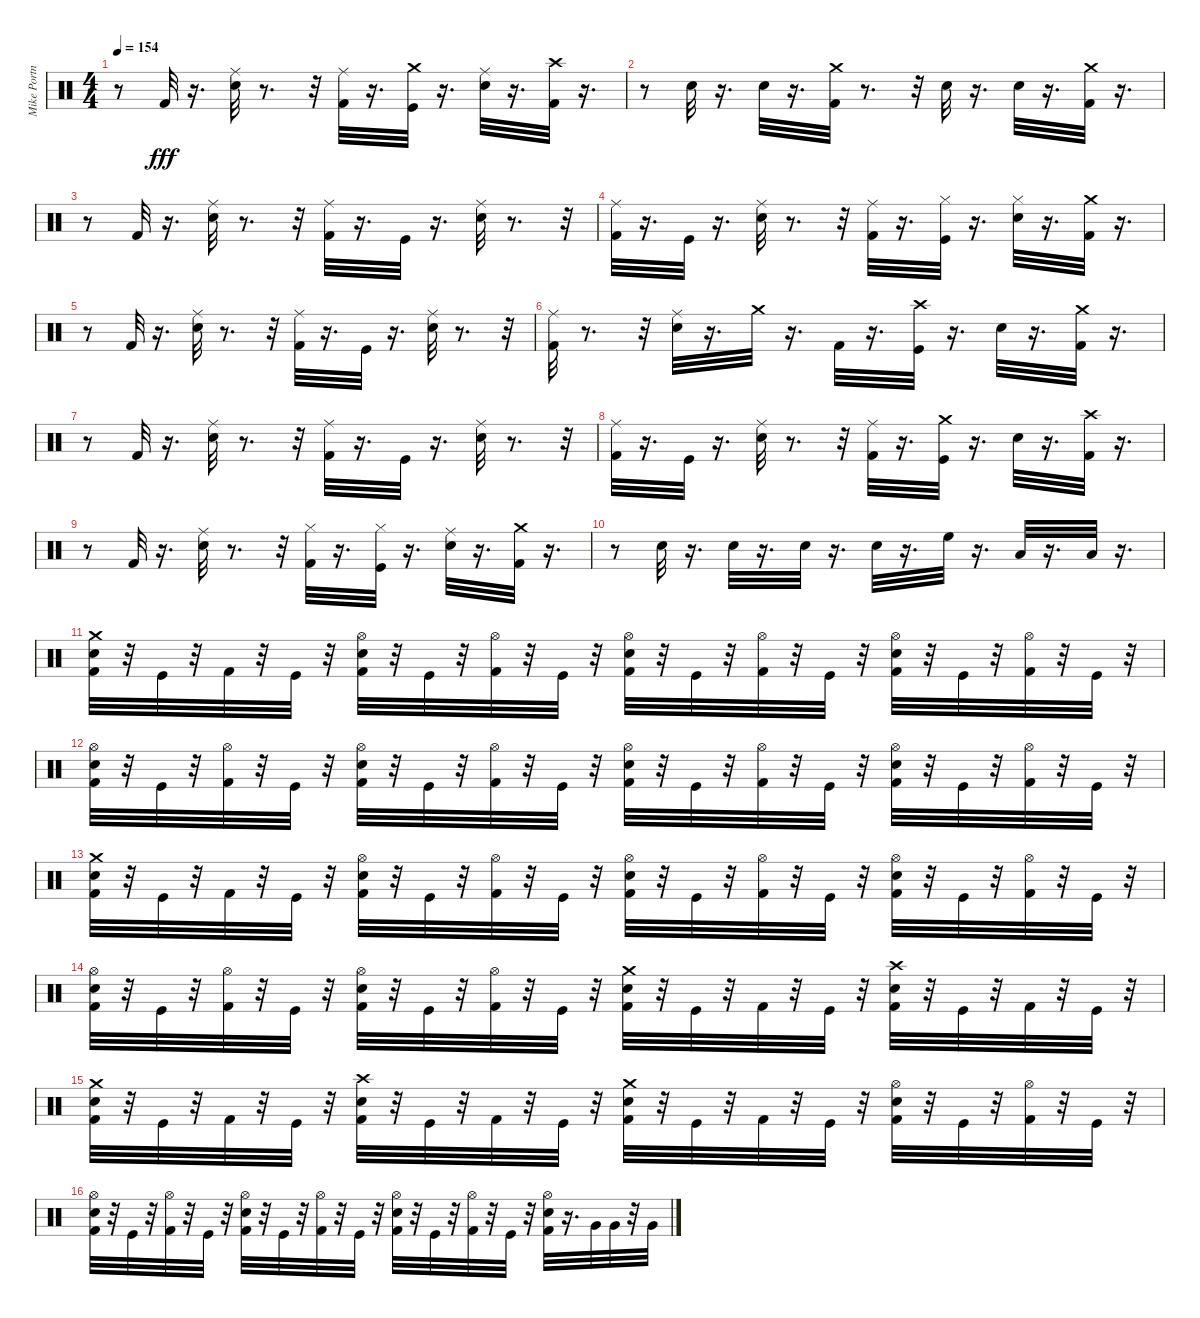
\track ("Mike Portnoy" "Mike Portn") {instrument percussion}
\staff {score}
\articulation defaults
\ts (4 4)
\tempo 154
\clef neutral
\ks c
r.8{dy fff} "Kick (hit) 2".32 r.16{d} ("Snare (hit) 2" "Ride (middle)").32 r.8{d} r.32 ("Kick (hit) 2" "Ride (middle)").32 r.16{d} ("Kick (hit)" "Crash medium (hit)").32 r.16{d} ("Snare (hit) 2" "Ride (middle)").32 r.16{d} ("Kick (hit) 2" "Crash high (hit)").32 r.16{d} |
r.8 "Snare (hit) 2".32 r.16{d} "Snare (hit) 2".32 r.16{d} ("Kick (hit) 2" "Crash medium (hit)").32 r.8{d} r.32 "Snare (hit) 2".32 r.16{d} "Snare (hit) 2".32 r.16{d} ("Kick (hit) 2" "Crash medium (hit)").32 r.16{d} |
r.8 "Kick (hit) 2".32 r.16{d} ("Snare (hit) 2" "Ride (middle)").32 r.8{d} r.32 ("Kick (hit) 2" "Ride (middle)").32 r.16{d} "Kick (hit)".32 r.16{d} ("Snare (hit) 2" "Ride (middle)").32 r.8{d} r.32 |
("Kick (hit) 2" "Ride (middle)").32 r.16{d} "Kick (hit)".32 r.16{d} ("Snare (hit) 2" "Ride (middle)").32 r.8{d} r.32 ("Kick (hit) 2" "Ride (middle)").32 r.16{d} ("Kick (hit)" "Hi-Hat (closed)").32 r.16{d} ("Snare (hit) 2" "Hi-Hat (closed)").32 r.16{d} ("Kick (hit) 2" "Crash medium (hit)").32 r.16{d} |
r.8 "Kick (hit) 2".32 r.16{d} ("Snare (hit) 2" "Ride (middle)").32 r.8{d} r.32 ("Kick (hit) 2" "Ride (middle)").32 r.16{d} "Kick (hit)".32 r.16{d} ("Snare (hit) 2" "Ride (middle)").32 r.8{d} r.32 |
("Kick (hit) 2" "Ride (middle)").32 r.8{d} r.32 ("Snare (hit) 2" "Ride (middle)").32 r.16{d} "Crash medium (hit)".32 r.16{d} "Kick (hit) 2".32 r.16{d} ("Kick (hit)" "Crash high (hit)").32 r.16{d} "Snare (hit) 2".32 r.16{d} ("Kick (hit) 2" "Crash medium (hit)").32 r.16{d} |
r.8 "Kick (hit) 2".32 r.16{d} ("Snare (hit) 2" "Ride (middle)").32 r.8{d} r.32 ("Kick (hit) 2" "Ride (middle)").32 r.16{d} "Kick (hit)".32 r.16{d} ("Snare (hit) 2" "Ride (middle)").32 r.8{d} r.32 |
("Kick (hit) 2" "Ride (middle)").32 r.16{d} "Kick (hit)".32 r.16{d} ("Snare (hit) 2" "Ride (middle)").32 r.8{d} r.32 ("Kick (hit) 2" "Ride (middle)").32 r.16{d} ("Kick (hit)" "Crash medium (hit)").32 r.16{d} "Snare (hit) 2".32 r.16{d} ("Kick (hit) 2" "Crash high (hit)").32 r.16{d} |
r.8 "Kick (hit) 2".32 r.16{d} ("Snare (hit) 2" "Ride (middle)").32 r.8{d} r.32 ("Kick (hit) 2" "Hi-Hat (closed)").32 r.16{d} ("Kick (hit)" "Hi-Hat (closed)").32 r.16{d} ("Snare (hit) 2" "Ride (middle)").32 r.16{d} ("Kick (hit) 2" "Crash medium (hit)").32 r.16{d} |
r.8 "Snare (hit) 2".32 r.16{d} "Snare (hit) 2".32 r.16{d} "Snare (hit) 2".32 r.16{d} "Snare (hit) 2".32 r.16{d} "High Floor Tom (hit)".32 r.16{d} "Low Tom (hit)".32 r.16{d} "Low Floor Tom (hit)".32 r.16{d} |
("Crash medium (hit)" "Snare (hit) 2" "Kick (hit) 2").32 r.32 "Kick (hit)".32 r.32 "Kick (hit) 2".32 r.32 "Kick (hit)".32 r.32 ("Hi-Hat (open)" "Snare (hit) 2" "Kick (hit) 2").32 r.32 "Kick (hit)".32 r.32 ("Hi-Hat (open)" "Kick (hit) 2").32 r.32 "Kick (hit)".32 r.32 ("Hi-Hat (open)" "Snare (hit) 2" "Kick (hit) 2").32 r.32 "Kick (hit)".32 r.32 ("Hi-Hat (open)" "Kick (hit) 2").32 r.32 "Kick (hit)".32 r.32 ("Hi-Hat (open)" "Snare (hit) 2" "Kick (hit) 2").32 r.32 "Kick (hit)".32 r.32 ("Hi-Hat (open)" "Kick (hit) 2").32 r.32 "Kick (hit)".32 r.32 |
("Hi-Hat (open)" "Snare (hit) 2" "Kick (hit) 2").32 r.32 "Kick (hit)".32 r.32 ("Hi-Hat (open)" "Kick (hit) 2").32 r.32 "Kick (hit)".32 r.32 ("Hi-Hat (open)" "Snare (hit) 2" "Kick (hit) 2").32 r.32 "Kick (hit)".32 r.32 ("Hi-Hat (open)" "Kick (hit) 2").32 r.32 "Kick (hit)".32 r.32 ("Hi-Hat (open)" "Snare (hit) 2" "Kick (hit) 2").32 r.32 "Kick (hit)".32 r.32 ("Hi-Hat (open)" "Kick (hit) 2").32 r.32 "Kick (hit)".32 r.32 ("Hi-Hat (open)" "Snare (hit) 2" "Kick (hit) 2").32 r.32 "Kick (hit)".32 r.32 ("Hi-Hat (open)" "Kick (hit) 2").32 r.32 "Kick (hit)".32 r.32 |
("Crash medium (hit)" "Snare (hit) 2" "Kick (hit) 2").32 r.32 "Kick (hit)".32 r.32 "Kick (hit) 2".32 r.32 "Kick (hit)".32 r.32 ("Hi-Hat (open)" "Snare (hit) 2" "Kick (hit) 2").32 r.32 "Kick (hit)".32 r.32 ("Hi-Hat (open)" "Kick (hit) 2").32 r.32 "Kick (hit)".32 r.32 ("Hi-Hat (open)" "Snare (hit) 2" "Kick (hit) 2").32 r.32 "Kick (hit)".32 r.32 ("Hi-Hat (open)" "Kick (hit) 2").32 r.32 "Kick (hit)".32 r.32 ("Hi-Hat (open)" "Snare (hit) 2" "Kick (hit) 2").32 r.32 "Kick (hit)".32 r.32 ("Hi-Hat (open)" "Kick (hit) 2").32 r.32 "Kick (hit)".32 r.32 |
("Hi-Hat (open)" "Snare (hit) 2" "Kick (hit) 2").32 r.32 "Kick (hit)".32 r.32 ("Hi-Hat (open)" "Kick (hit) 2").32 r.32 "Kick (hit)".32 r.32 ("Hi-Hat (open)" "Snare (hit) 2" "Kick (hit) 2").32 r.32 "Kick (hit)".32 r.32 ("Hi-Hat (open)" "Kick (hit) 2").32 r.32 "Kick (hit)".32 r.32 ("Crash medium (hit)" "Snare (hit) 2" "Kick (hit) 2").32 r.32 "Kick (hit)".32 r.32 "Kick (hit) 2".32 r.32 "Kick (hit)".32 r.32 ("Crash high (hit)" "Snare (hit) 2" "Kick (hit) 2").32 r.32 "Kick (hit)".32 r.32 "Kick (hit) 2".32 r.32 "Kick (hit)".32 r.32 |
("Crash medium (hit)" "Snare (hit) 2" "Kick (hit) 2").32 r.32 "Kick (hit)".32 r.32 "Kick (hit) 2".32 r.32 "Kick (hit)".32 r.32 ("Crash high (hit)" "Snare (hit) 2" "Kick (hit) 2").32 r.32 "Kick (hit)".32 r.32 "Kick (hit) 2".32 r.32 "Kick (hit)".32 r.32 ("Crash medium (hit)" "Snare (hit) 2" "Kick (hit) 2").32 r.32 "Kick (hit)".32 r.32 "Kick (hit) 2".32 r.32 "Kick (hit)".32 r.32 ("Hi-Hat (open)" "Snare (hit) 2" "Kick (hit) 2").32 r.32 "Kick (hit)".32 r.32 ("Hi-Hat (open)" "Kick (hit) 2").32 r.32 "Kick (hit)".32 r.32 |
("Hi-Hat (open)" "Snare (hit) 2" "Kick (hit) 2").32 r.32 "Kick (hit)".32 r.32 ("Hi-Hat (open)" "Kick (hit) 2").32 r.32 "Kick (hit)".32 r.32 ("Hi-Hat (open)" "Snare (hit) 2" "Kick (hit) 2").32 r.32 "Kick (hit)".32 r.32 ("Hi-Hat (open)" "Kick (hit) 2").32 r.32 "Kick (hit)".32 r.32 ("Hi-Hat (open)" "Snare (hit) 2" "Kick (hit) 2").32 r.32 "Kick (hit)".32 r.32 ("Hi-Hat (open)" "Kick (hit) 2").32 r.32 "Kick (hit)".32 r.32 ("Hi-Hat (open)" "Snare (hit) 2" "Kick (hit) 2").32 r.16{d} "Very Low Tom (hit)".32 "Very Low Tom (hit)".32 r.32 "Very Low Tom (hit)".32
